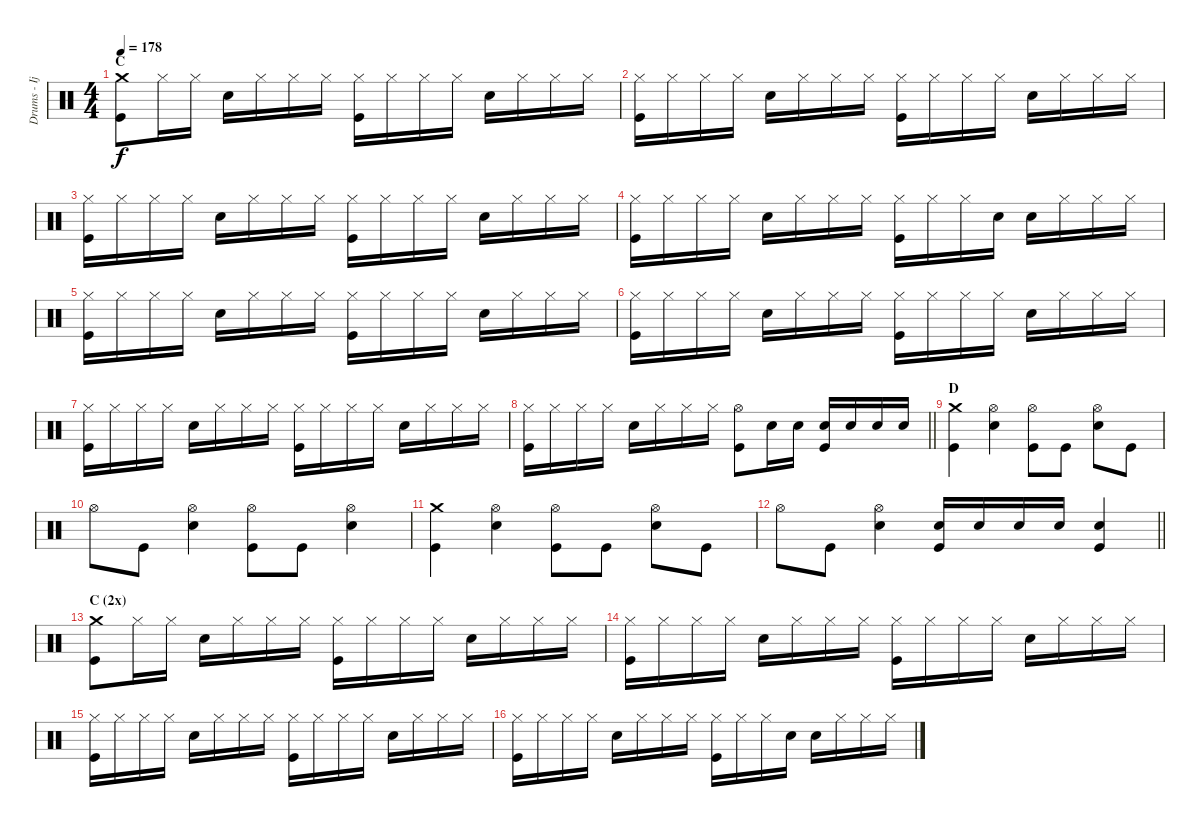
\track ("Drums - Ijichi" "Drums - Ij") {instrument percussion}
\staff {score}
\articulation defaults
\ts (4 4)
\section ("" "C")
\tempo 178
\clef neutral
\ks c
("Crash medium (hit)" "Kick (hit)").8{dy f} "Hi-Hat (closed)".16 "Hi-Hat (closed)".16 "Electric Snare (hit)".16 "Hi-Hat (closed)".16 "Hi-Hat (closed)".16 "Hi-Hat (closed)".16 ("Hi-Hat (closed)" "Kick (hit)").16 "Hi-Hat (closed)".16 "Hi-Hat (closed)".16 "Hi-Hat (closed)".16 "Electric Snare (hit)".16 "Hi-Hat (closed)".16 "Hi-Hat (closed)".16 "Hi-Hat (closed)".16 |
("Hi-Hat (closed)" "Kick (hit)").16 "Hi-Hat (closed)".16 "Hi-Hat (closed)".16 "Hi-Hat (closed)".16 "Electric Snare (hit)".16 "Hi-Hat (closed)".16 "Hi-Hat (closed)".16 "Hi-Hat (closed)".16 ("Hi-Hat (closed)" "Kick (hit)").16 "Hi-Hat (closed)".16 "Hi-Hat (closed)".16 "Hi-Hat (closed)".16 "Electric Snare (hit)".16 "Hi-Hat (closed)".16 "Hi-Hat (closed)".16 "Hi-Hat (closed)".16 |
("Hi-Hat (closed)" "Kick (hit)").16 "Hi-Hat (closed)".16 "Hi-Hat (closed)".16 "Hi-Hat (closed)".16 "Electric Snare (hit)".16 "Hi-Hat (closed)".16 "Hi-Hat (closed)".16 "Hi-Hat (closed)".16 ("Hi-Hat (closed)" "Kick (hit)").16 "Hi-Hat (closed)".16 "Hi-Hat (closed)".16 "Hi-Hat (closed)".16 "Electric Snare (hit)".16 "Hi-Hat (closed)".16 "Hi-Hat (closed)".16 "Hi-Hat (closed)".16 |
("Hi-Hat (closed)" "Kick (hit)").16 "Hi-Hat (closed)".16 "Hi-Hat (closed)".16 "Hi-Hat (closed)".16 "Electric Snare (hit)".16 "Hi-Hat (closed)".16 "Hi-Hat (closed)".16 "Hi-Hat (closed)".16 ("Hi-Hat (closed)" "Kick (hit)").16 "Hi-Hat (closed)".16 "Hi-Hat (closed)".16 "Electric Snare (hit)".16 "Electric Snare (hit)".16 "Hi-Hat (closed)".16 "Hi-Hat (closed)".16 "Hi-Hat (closed)".16 |
("Hi-Hat (closed)" "Kick (hit)").16 "Hi-Hat (closed)".16 "Hi-Hat (closed)".16 "Hi-Hat (closed)".16 "Electric Snare (hit)".16 "Hi-Hat (closed)".16 "Hi-Hat (closed)".16 "Hi-Hat (closed)".16 ("Hi-Hat (closed)" "Kick (hit)").16 "Hi-Hat (closed)".16 "Hi-Hat (closed)".16 "Hi-Hat (closed)".16 "Electric Snare (hit)".16 "Hi-Hat (closed)".16 "Hi-Hat (closed)".16 "Hi-Hat (closed)".16 |
("Hi-Hat (closed)" "Kick (hit)").16 "Hi-Hat (closed)".16 "Hi-Hat (closed)".16 "Hi-Hat (closed)".16 "Electric Snare (hit)".16 "Hi-Hat (closed)".16 "Hi-Hat (closed)".16 "Hi-Hat (closed)".16 ("Hi-Hat (closed)" "Kick (hit)").16 "Hi-Hat (closed)".16 "Hi-Hat (closed)".16 "Hi-Hat (closed)".16 "Electric Snare (hit)".16 "Hi-Hat (closed)".16 "Hi-Hat (closed)".16 "Hi-Hat (closed)".16 |
("Hi-Hat (closed)" "Kick (hit)").16 "Hi-Hat (closed)".16 "Hi-Hat (closed)".16 "Hi-Hat (closed)".16 "Electric Snare (hit)".16 "Hi-Hat (closed)".16 "Hi-Hat (closed)".16 "Hi-Hat (closed)".16 ("Hi-Hat (closed)" "Kick (hit)").16 "Hi-Hat (closed)".16 "Hi-Hat (closed)".16 "Hi-Hat (closed)".16 "Electric Snare (hit)".16 "Hi-Hat (closed)".16 "Hi-Hat (closed)".16 "Hi-Hat (closed)".16 |
\barLineRight lightlight
("Hi-Hat (closed)" "Kick (hit)").16 "Hi-Hat (closed)".16 "Hi-Hat (closed)".16 "Hi-Hat (closed)".16 "Electric Snare (hit)".16 "Hi-Hat (closed)".16 "Hi-Hat (closed)".16 "Hi-Hat (closed)".16 ("Hi-Hat (open)" "Kick (hit)").8 "Electric Snare (hit)".16 "Electric Snare (hit)".16 ("Electric Snare (hit)" "Kick (hit)").16 "Electric Snare (hit)".16 "Electric Snare (hit)".16 "Electric Snare (hit)".16 |
\section ("" "D")
("Crash medium (hit)" "Kick (hit)").4 ("Hi-Hat (open)" "Electric Snare (hit)").4 ("Hi-Hat (open)" "Kick (hit)").8 "Kick (hit)".8 ("Hi-Hat (open)" "Electric Snare (hit)").8 "Kick (hit)".8 |
"Hi-Hat (open)".8 "Kick (hit)".8 ("Hi-Hat (open)" "Electric Snare (hit)").4 ("Hi-Hat (open)" "Kick (hit)").8 "Kick (hit)".8 ("Hi-Hat (open)" "Electric Snare (hit)").4 |
("Crash medium (hit)" "Kick (hit)").4 ("Hi-Hat (open)" "Electric Snare (hit)").4 ("Hi-Hat (open)" "Kick (hit)").8 "Kick (hit)".8 ("Hi-Hat (open)" "Electric Snare (hit)").8 "Kick (hit)".8 |
\barLineRight lightlight "Hi-Hat (open)".8 "Kick (hit)".8
("Hi-Hat (open)" "Electric Snare (hit)").4 ("Electric Snare (hit)" "Kick (hit)").16 "Electric Snare (hit)".16 "Electric Snare (hit)".16 "Electric Snare (hit)".16 ("Electric Snare (hit)" "Kick (hit)").4 |
\section ("" "C (2x)")
("Crash medium (hit)" "Kick (hit)").8 "Hi-Hat (closed)".16 "Hi-Hat (closed)".16 "Electric Snare (hit)".16 "Hi-Hat (closed)".16 "Hi-Hat (closed)".16 "Hi-Hat (closed)".16 ("Hi-Hat (closed)" "Kick (hit)").16 "Hi-Hat (closed)".16 "Hi-Hat (closed)".16 "Hi-Hat (closed)".16 "Electric Snare (hit)".16 "Hi-Hat (closed)".16 "Hi-Hat (closed)".16 "Hi-Hat (closed)".16 |
("Hi-Hat (closed)" "Kick (hit)").16 "Hi-Hat (closed)".16 "Hi-Hat (closed)".16 "Hi-Hat (closed)".16 "Electric Snare (hit)".16 "Hi-Hat (closed)".16 "Hi-Hat (closed)".16 "Hi-Hat (closed)".16 ("Hi-Hat (closed)" "Kick (hit)").16 "Hi-Hat (closed)".16 "Hi-Hat (closed)".16 "Hi-Hat (closed)".16 "Electric Snare (hit)".16 "Hi-Hat (closed)".16 "Hi-Hat (closed)".16 "Hi-Hat (closed)".16 |
("Hi-Hat (closed)" "Kick (hit)").16 "Hi-Hat (closed)".16 "Hi-Hat (closed)".16 "Hi-Hat (closed)".16 "Electric Snare (hit)".16 "Hi-Hat (closed)".16 "Hi-Hat (closed)".16 "Hi-Hat (closed)".16 ("Hi-Hat (closed)" "Kick (hit)").16 "Hi-Hat (closed)".16 "Hi-Hat (closed)".16 "Hi-Hat (closed)".16 "Electric Snare (hit)".16 "Hi-Hat (closed)".16 "Hi-Hat (closed)".16 "Hi-Hat (closed)".16 |
("Hi-Hat (closed)" "Kick (hit)").16 "Hi-Hat (closed)".16 "Hi-Hat (closed)".16 "Hi-Hat (closed)".16 "Electric Snare (hit)".16 "Hi-Hat (closed)".16 "Hi-Hat (closed)".16 "Hi-Hat (closed)".16 ("Hi-Hat (closed)" "Kick (hit)").16 "Hi-Hat (closed)".16 "Hi-Hat (closed)".16 "Electric Snare (hit)".16 "Electric Snare (hit)".16 "Hi-Hat (closed)".16 "Hi-Hat (closed)".16 "Hi-Hat (closed)".16
